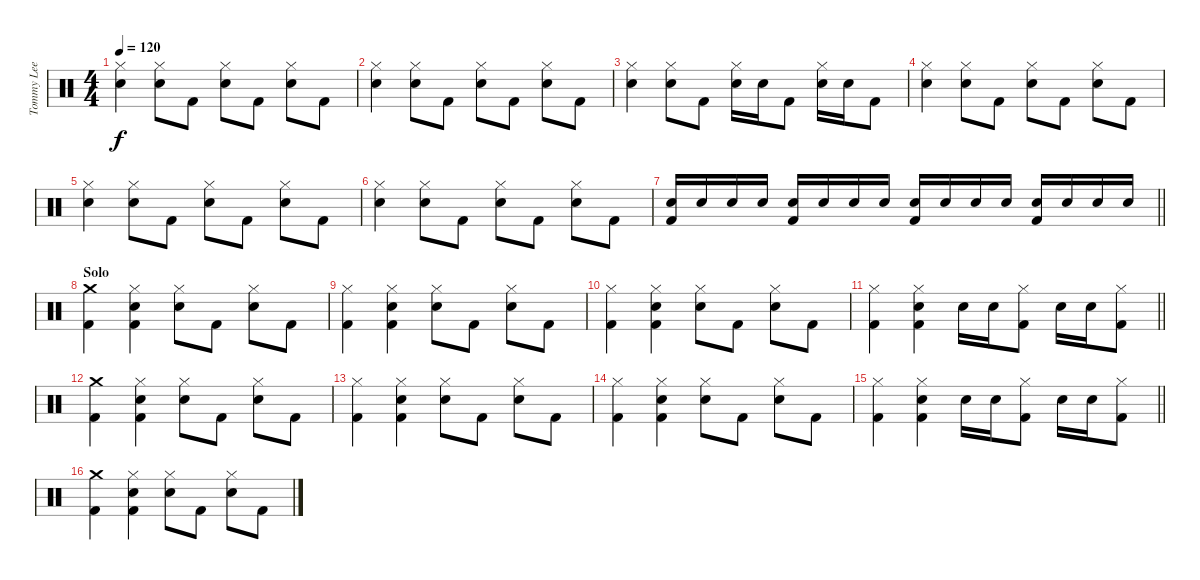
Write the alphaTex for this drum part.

\track ("Tommy Lee - Drums" "Tommy Lee ") {instrument percussion}
\staff {score}
\articulation defaults
\ts (4 4)
\tempo 120
\clef neutral
\ks c
("Hi-Hat (closed)" "Snare (hit) 2").4{dy f} ("Hi-Hat (closed)" "Snare (hit) 2").8 "Kick (hit) 2".8 ("Hi-Hat (closed)" "Snare (hit) 2").8 "Kick (hit) 2".8 ("Hi-Hat (closed)" "Snare (hit) 2").8 "Kick (hit) 2".8 |
("Hi-Hat (closed)" "Snare (hit) 2").4 ("Hi-Hat (closed)" "Snare (hit) 2").8 "Kick (hit) 2".8 ("Hi-Hat (closed)" "Snare (hit) 2").8 "Kick (hit) 2".8 ("Hi-Hat (closed)" "Snare (hit) 2").8 "Kick (hit) 2".8 |
("Hi-Hat (closed)" "Snare (hit) 2").4 ("Hi-Hat (closed)" "Snare (hit) 2").8 "Kick (hit) 2".8 ("Hi-Hat (closed)" "Snare (hit) 2").16 "Snare (hit) 2".16 "Kick (hit) 2".8 ("Hi-Hat (closed)" "Snare (hit) 2").16 "Snare (hit) 2".16 "Kick (hit) 2".8 |
("Hi-Hat (closed)" "Snare (hit) 2").4 ("Hi-Hat (closed)" "Snare (hit) 2").8 "Kick (hit) 2".8 ("Hi-Hat (closed)" "Snare (hit) 2").8 "Kick (hit) 2".8 ("Hi-Hat (closed)" "Snare (hit) 2").8 "Kick (hit) 2".8 |
("Hi-Hat (closed)" "Snare (hit) 2").4 ("Hi-Hat (closed)" "Snare (hit) 2").8 "Kick (hit) 2".8 ("Hi-Hat (closed)" "Snare (hit) 2").8 "Kick (hit) 2".8 ("Hi-Hat (closed)" "Snare (hit) 2").8 "Kick (hit) 2".8 |
("Hi-Hat (closed)" "Snare (hit) 2").4 ("Hi-Hat (closed)" "Snare (hit) 2").8 "Kick (hit) 2".8 ("Hi-Hat (closed)" "Snare (hit) 2").8 "Kick (hit) 2".8 ("Hi-Hat (closed)" "Snare (hit) 2").8 "Kick (hit) 2".8 |
\barLineRight lightlight
("Snare (hit) 2" "Kick (hit) 2").16 "Snare (hit) 2".16 "Snare (hit) 2".16 "Snare (hit) 2".16 ("Snare (hit) 2" "Kick (hit) 2").16 "Snare (hit) 2".16 "Snare (hit) 2".16 "Snare (hit) 2".16 ("Snare (hit) 2" "Kick (hit) 2").16 "Snare (hit) 2".16 "Snare (hit) 2".16 "Snare (hit) 2".16 ("Snare (hit) 2" "Kick (hit) 2").16 "Snare (hit) 2".16 "Snare (hit) 2".16 "Snare (hit) 2".16 |
\section ("" "Solo")
("Crash medium (hit)" "Kick (hit) 2").4 ("Hi-Hat (closed)" "Snare (hit) 2" "Kick (hit) 2").4 ("Hi-Hat (closed)" "Snare (hit) 2").8 "Kick (hit) 2".8 ("Hi-Hat (closed)" "Snare (hit) 2").8 "Kick (hit) 2".8 |
("Hi-Hat (closed)" "Kick (hit) 2").4 ("Hi-Hat (closed)" "Snare (hit) 2" "Kick (hit) 2").4 ("Hi-Hat (closed)" "Snare (hit) 2").8 "Kick (hit) 2".8 ("Hi-Hat (closed)" "Snare (hit) 2").8 "Kick (hit) 2".8 |
("Hi-Hat (closed)" "Kick (hit) 2").4 ("Hi-Hat (closed)" "Snare (hit) 2" "Kick (hit) 2").4 ("Hi-Hat (closed)" "Snare (hit) 2").8 "Kick (hit) 2".8 ("Hi-Hat (closed)" "Snare (hit) 2").8 "Kick (hit) 2".8 |
\barLineRight lightlight
("Hi-Hat (closed)" "Kick (hit) 2").4 ("Hi-Hat (closed)" "Snare (hit) 2" "Kick (hit) 2").4 "Snare (hit) 2".16 "Snare (hit) 2".16 ("Hi-Hat (closed)" "Kick (hit) 2").8 "Snare (hit) 2".16 "Snare (hit) 2".16 ("Hi-Hat (closed)" "Kick (hit) 2").8 |
("Crash medium (hit)" "Kick (hit) 2").4 ("Hi-Hat (closed)" "Snare (hit) 2" "Kick (hit) 2").4 ("Hi-Hat (closed)" "Snare (hit) 2").8 "Kick (hit) 2".8 ("Hi-Hat (closed)" "Snare (hit) 2").8 "Kick (hit) 2".8 |
("Hi-Hat (closed)" "Kick (hit) 2").4 ("Hi-Hat (closed)" "Snare (hit) 2" "Kick (hit) 2").4 ("Hi-Hat (closed)" "Snare (hit) 2").8 "Kick (hit) 2".8 ("Hi-Hat (closed)" "Snare (hit) 2").8 "Kick (hit) 2".8 |
("Hi-Hat (closed)" "Kick (hit) 2").4 ("Hi-Hat (closed)" "Snare (hit) 2" "Kick (hit) 2").4 ("Hi-Hat (closed)" "Snare (hit) 2").8 "Kick (hit) 2".8 ("Hi-Hat (closed)" "Snare (hit) 2").8 "Kick (hit) 2".8 |
\barLineRight lightlight
("Hi-Hat (closed)" "Kick (hit) 2").4 ("Hi-Hat (closed)" "Snare (hit) 2" "Kick (hit) 2").4 "Snare (hit) 2".16 "Snare (hit) 2".16 ("Hi-Hat (closed)" "Kick (hit) 2").8 "Snare (hit) 2".16 "Snare (hit) 2".16 ("Hi-Hat (closed)" "Kick (hit) 2").8 |
("Crash medium (hit)" "Kick (hit) 2").4 ("Hi-Hat (closed)" "Snare (hit) 2" "Kick (hit) 2").4 ("Hi-Hat (closed)" "Snare (hit) 2").8 "Kick (hit) 2".8 ("Hi-Hat (closed)" "Snare (hit) 2").8 "Kick (hit) 2".8
